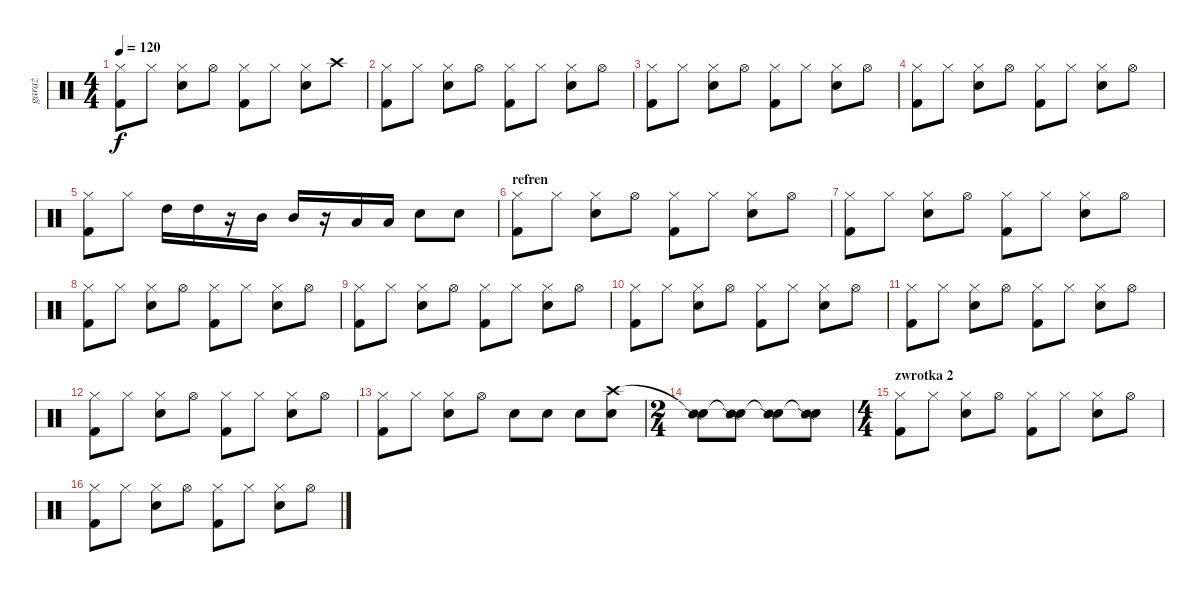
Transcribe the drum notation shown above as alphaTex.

\track ("garaż" "garaż") {instrument percussion}
\staff {score}
\articulation defaults
\ts (4 4)
\tempo 120
\clef neutral
\ks c
("Hi-Hat (closed)" "Kick (hit) 2").8{dy f} "Hi-Hat (closed)".8 ("Hi-Hat (closed)" "Snare (hit) 2").8 "Hi-Hat (open)".8 ("Hi-Hat (closed)" "Kick (hit) 2").8 "Hi-Hat (closed)".8 ("Hi-Hat (closed)" "Snare (hit) 2").8 "Crash high (hit)".8 |
("Hi-Hat (closed)" "Kick (hit) 2").8 "Hi-Hat (closed)".8 ("Hi-Hat (closed)" "Snare (hit) 2").8 "Hi-Hat (open)".8 ("Hi-Hat (closed)" "Kick (hit) 2").8 "Hi-Hat (closed)".8 ("Hi-Hat (closed)" "Snare (hit) 2").8 "Hi-Hat (open)".8 |
("Hi-Hat (closed)" "Kick (hit) 2").8 "Hi-Hat (closed)".8 ("Hi-Hat (closed)" "Snare (hit) 2").8 "Hi-Hat (open)".8 ("Hi-Hat (closed)" "Kick (hit) 2").8 "Hi-Hat (closed)".8 ("Hi-Hat (closed)" "Snare (hit) 2").8 "Hi-Hat (open)".8 |
("Hi-Hat (closed)" "Kick (hit) 2").8 "Hi-Hat (closed)".8 ("Hi-Hat (closed)" "Snare (hit) 2").8 "Hi-Hat (open)".8 ("Hi-Hat (closed)" "Kick (hit) 2").8 "Hi-Hat (closed)".8 ("Hi-Hat (closed)" "Snare (hit) 2").8 "Hi-Hat (open)".8 |
("Hi-Hat (closed)" "Kick (hit) 2").8 "Hi-Hat (closed)".8 "High Tom (hit)".16 "High Tom (hit)".16 r.16 "Mid Tom (hit)".16 "Mid Tom (hit)".16 r.16 "Low Tom (hit)".16 "Low Tom (hit)".16 "Snare (hit) 2".8 "Snare (hit) 2".8 |
\section ("" "refren")
("Hi-Hat (closed)" "Kick (hit) 2").8 "Hi-Hat (closed)".8 ("Hi-Hat (closed)" "Snare (hit) 2").8 "Hi-Hat (open)".8 ("Hi-Hat (closed)" "Kick (hit) 2").8 "Hi-Hat (closed)".8 ("Hi-Hat (closed)" "Snare (hit) 2").8 "Hi-Hat (open)".8 |
("Hi-Hat (closed)" "Kick (hit) 2").8 "Hi-Hat (closed)".8 ("Hi-Hat (closed)" "Snare (hit) 2").8 "Hi-Hat (open)".8 ("Hi-Hat (closed)" "Kick (hit) 2").8 "Hi-Hat (closed)".8 ("Hi-Hat (closed)" "Snare (hit) 2").8 "Hi-Hat (open)".8 |
("Hi-Hat (closed)" "Kick (hit) 2").8 "Hi-Hat (closed)".8 ("Hi-Hat (closed)" "Snare (hit) 2").8 "Hi-Hat (open)".8 ("Hi-Hat (closed)" "Kick (hit) 2").8 "Hi-Hat (closed)".8 ("Hi-Hat (closed)" "Snare (hit) 2").8 "Hi-Hat (open)".8 |
("Hi-Hat (closed)" "Kick (hit) 2").8 "Hi-Hat (closed)".8 ("Hi-Hat (closed)" "Snare (hit) 2").8 "Hi-Hat (open)".8 ("Hi-Hat (closed)" "Kick (hit) 2").8 "Hi-Hat (closed)".8 ("Hi-Hat (closed)" "Snare (hit) 2").8 "Hi-Hat (open)".8 |
("Hi-Hat (closed)" "Kick (hit) 2").8 "Hi-Hat (closed)".8 ("Hi-Hat (closed)" "Snare (hit) 2").8 "Hi-Hat (open)".8 ("Hi-Hat (closed)" "Kick (hit) 2").8 "Hi-Hat (closed)".8 ("Hi-Hat (closed)" "Snare (hit) 2").8 "Hi-Hat (open)".8 |
("Hi-Hat (closed)" "Kick (hit) 2").8 "Hi-Hat (closed)".8 ("Hi-Hat (closed)" "Snare (hit) 2").8 "Hi-Hat (open)".8 ("Hi-Hat (closed)" "Kick (hit) 2").8 "Hi-Hat (closed)".8 ("Hi-Hat (closed)" "Snare (hit) 2").8 "Hi-Hat (open)".8 |
("Hi-Hat (closed)" "Kick (hit) 2").8 "Hi-Hat (closed)".8 ("Hi-Hat (closed)" "Snare (hit) 2").8 "Hi-Hat (open)".8 ("Hi-Hat (closed)" "Kick (hit) 2").8 "Hi-Hat (closed)".8 ("Hi-Hat (closed)" "Snare (hit) 2").8 "Hi-Hat (open)".8 |
("Hi-Hat (closed)" "Kick (hit) 2").8 "Hi-Hat (closed)".8 ("Hi-Hat (closed)" "Snare (hit) 2").8 "Hi-Hat (open)".8 "Snare (hit) 2".8 "Snare (hit) 2".8 "Snare (hit) 2".8 ("Crash high (hit)" "Snare (hit) 2").8 |
\ts (2 4)
("Snare (hit)"{t} "Snare (side stick) 2").8 ("Snare (hit)"{t} "Snare (side stick) 2").8 ("Snare (hit)"{t} "Snare (side stick) 2").8 ("Snare (hit)"{t} "Snare (side stick) 2").8 |
\ts (4 4)
\section ("" "zwrotka 2")
("Hi-Hat (closed)" "Kick (hit) 2").8 "Hi-Hat (closed)".8 ("Hi-Hat (closed)" "Snare (hit) 2").8 "Hi-Hat (open)".8 ("Hi-Hat (closed)" "Kick (hit) 2").8 "Hi-Hat (closed)".8 ("Hi-Hat (closed)" "Snare (hit) 2").8 "Hi-Hat (open)".8 |
("Hi-Hat (closed)" "Kick (hit) 2").8 "Hi-Hat (closed)".8 ("Hi-Hat (closed)" "Snare (hit) 2").8 "Hi-Hat (open)".8 ("Hi-Hat (closed)" "Kick (hit) 2").8 "Hi-Hat (closed)".8 ("Hi-Hat (closed)" "Snare (hit) 2").8 "Hi-Hat (open)".8
